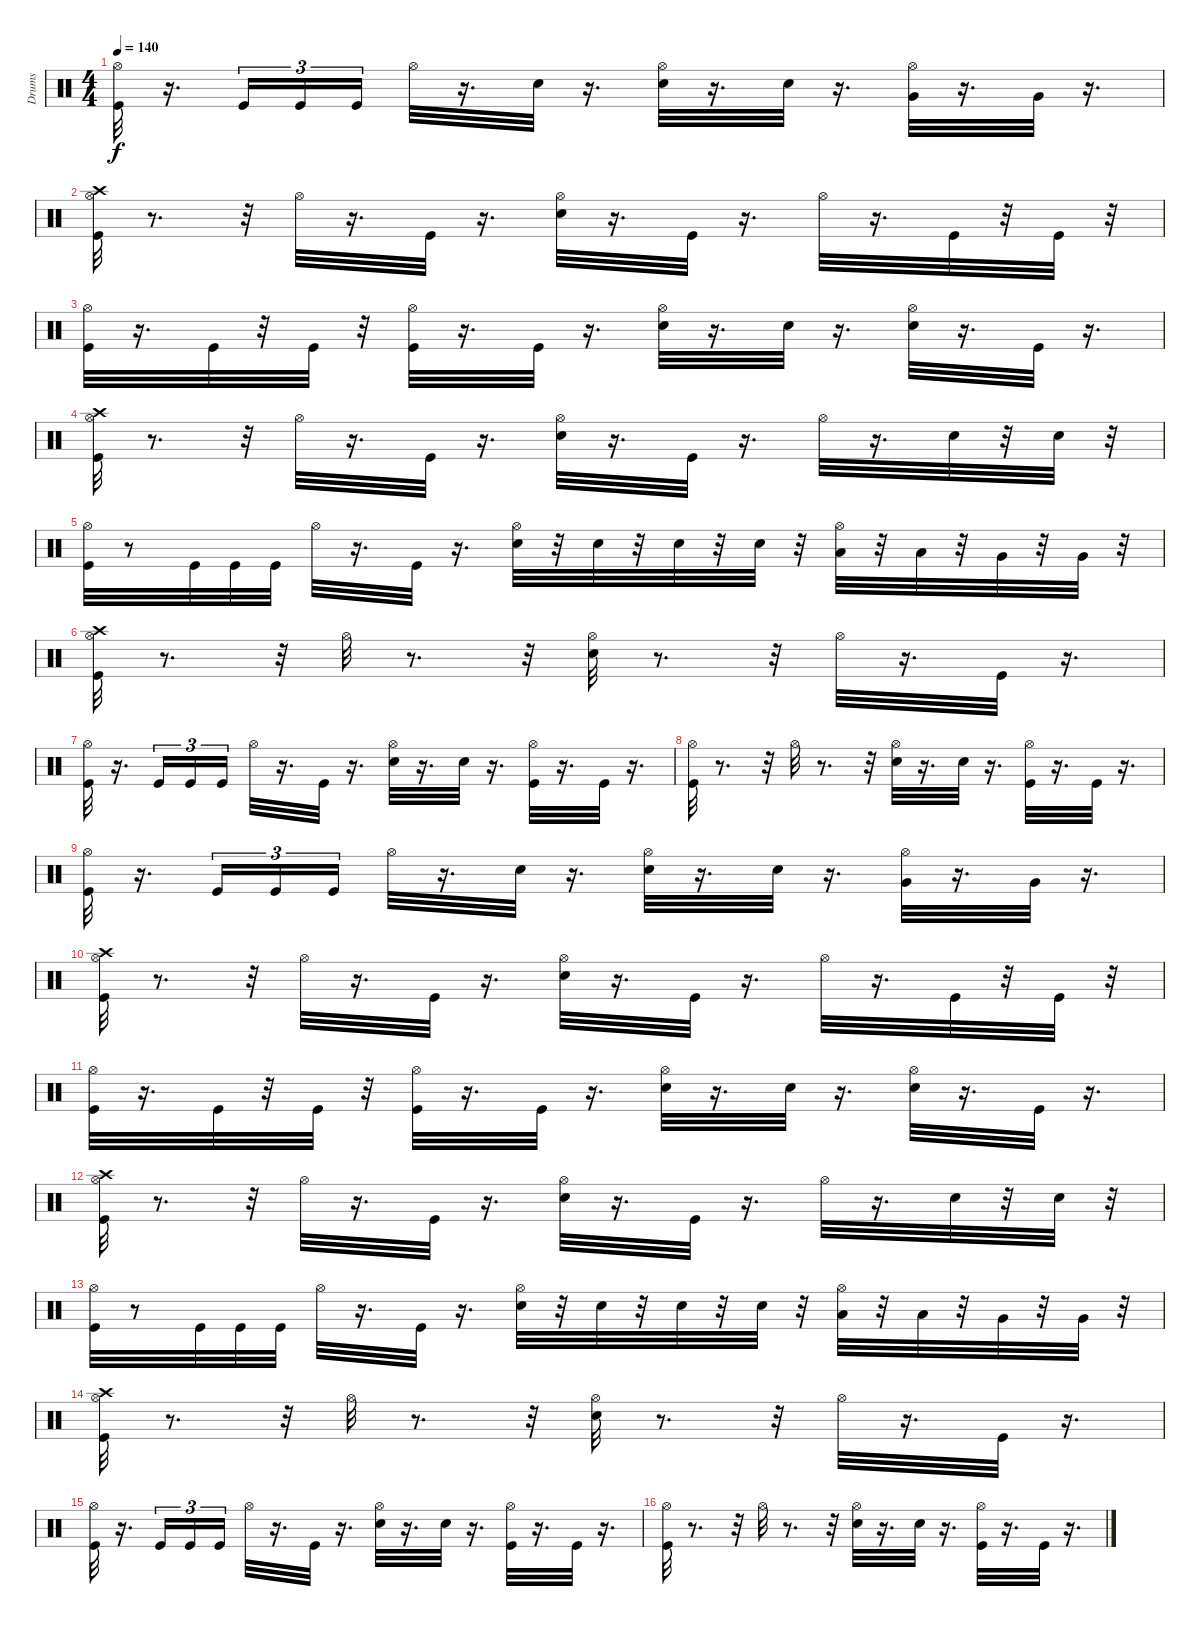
\track ("Drums" "Drums") {instrument percussion}
\staff {score}
\articulation defaults
\ts (4 4)
\tempo 140
\clef neutral
\ks c
("Hi-Hat (open)" "Kick (hit)").32{dy f} r.16{d} "Kick (hit)".16{tu (3 2)} "Kick (hit)".16{tu (3 2)} "Kick (hit)".16{tu (3 2)} "Hi-Hat (open)".32 r.16{d} "Electric Snare (hit)".32 r.16{d} ("Hi-Hat (open)" "Electric Snare (hit)").32 r.16{d} "Electric Snare (hit)".32 r.16{d} ("Hi-Hat (open)" "Very Low Tom (hit)").32 r.16{d} "Very Low Tom (hit)".32 r.16{d} |
("Hi-Hat (open)" "Crash high (hit)" "Kick (hit)").32 r.8{d} r.32 "Hi-Hat (open)".32 r.16{d} "Kick (hit)".32 r.16{d} ("Hi-Hat (open)" "Electric Snare (hit)").32 r.16{d} "Kick (hit)".32 r.16{d} "Hi-Hat (open)".32 r.16{d} "Kick (hit)".32 r.32 "Kick (hit)".32 r.32 |
("Hi-Hat (open)" "Kick (hit)").32 r.16{d} "Kick (hit)".32 r.32 "Kick (hit)".32 r.32 ("Hi-Hat (open)" "Kick (hit)").32 r.16{d} "Kick (hit)".32 r.16{d} ("Hi-Hat (open)" "Electric Snare (hit)").32 r.16{d} "Electric Snare (hit)".32 r.16{d} ("Hi-Hat (open)" "Electric Snare (hit)").32 r.16{d} "Kick (hit)".32 r.16{d} |
("Hi-Hat (open)" "Crash high (hit)" "Kick (hit)").32 r.8{d} r.32 "Hi-Hat (open)".32 r.16{d} "Kick (hit)".32 r.16{d} ("Hi-Hat (open)" "Electric Snare (hit)").32 r.16{d} "Kick (hit)".32 r.16{d} "Hi-Hat (open)".32 r.16{d} "Electric Snare (hit)".32 r.32 "Electric Snare (hit)".32 r.32 |
("Hi-Hat (open)" "Kick (hit)").32 r.8 "Kick (hit)".32 "Kick (hit)".32 "Kick (hit)".32 "Hi-Hat (open)".32 r.16{d} "Kick (hit)".32 r.16{d} ("Hi-Hat (open)" "Electric Snare (hit)").32 r.32 "Electric Snare (hit)".32 r.32 "Electric Snare (hit)".32 r.32 "Electric Snare (hit)".32 r.32 ("Hi-Hat (open)" "Low Tom (hit)").32 r.32 "Low Tom (hit)".32 r.32 "Very Low Tom (hit)".32 r.32 "Very Low Tom (hit)".32 r.32 |
("Hi-Hat (open)" "Crash high (hit)" "Kick (hit)").32 r.8{d} r.32 "Hi-Hat (open)".32 r.8{d} r.32 ("Hi-Hat (open)" "Electric Snare (hit)").32 r.8{d} r.32 "Hi-Hat (open)".32 r.16{d} "Kick (hit)".32 r.16{d} |
("Hi-Hat (open)" "Kick (hit)").32 r.16{d} "Kick (hit)".16{tu (3 2)} "Kick (hit)".16{tu (3 2)} "Kick (hit)".16{tu (3 2)} "Hi-Hat (open)".32 r.16{d} "Kick (hit)".32 r.16{d} ("Hi-Hat (open)" "Electric Snare (hit)").32 r.16{d} "Electric Snare (hit)".32 r.16{d} ("Hi-Hat (open)" "Kick (hit)").32 r.16{d} "Kick (hit)".32 r.16{d} |
("Hi-Hat (open)" "Kick (hit)").32 r.8{d} r.32 "Hi-Hat (open)".32 r.8{d} r.32 ("Hi-Hat (open)" "Electric Snare (hit)").32 r.16{d} "Electric Snare (hit)".32 r.16{d} ("Hi-Hat (open)" "Kick (hit)").32 r.16{d} "Kick (hit)".32 r.16{d} |
("Hi-Hat (open)" "Kick (hit)").32 r.16{d} "Kick (hit)".16{tu (3 2)} "Kick (hit)".16{tu (3 2)} "Kick (hit)".16{tu (3 2)} "Hi-Hat (open)".32 r.16{d} "Electric Snare (hit)".32 r.16{d} ("Hi-Hat (open)" "Electric Snare (hit)").32 r.16{d} "Electric Snare (hit)".32 r.16{d} ("Hi-Hat (open)" "Very Low Tom (hit)").32 r.16{d} "Very Low Tom (hit)".32 r.16{d} |
("Hi-Hat (open)" "Crash high (hit)" "Kick (hit)").32 r.8{d} r.32 "Hi-Hat (open)".32 r.16{d} "Kick (hit)".32 r.16{d} ("Hi-Hat (open)" "Electric Snare (hit)").32 r.16{d} "Kick (hit)".32 r.16{d} "Hi-Hat (open)".32 r.16{d} "Kick (hit)".32 r.32 "Kick (hit)".32 r.32 |
("Hi-Hat (open)" "Kick (hit)").32 r.16{d} "Kick (hit)".32 r.32 "Kick (hit)".32 r.32 ("Hi-Hat (open)" "Kick (hit)").32 r.16{d} "Kick (hit)".32 r.16{d} ("Hi-Hat (open)" "Electric Snare (hit)").32 r.16{d} "Electric Snare (hit)".32 r.16{d} ("Hi-Hat (open)" "Electric Snare (hit)").32 r.16{d} "Kick (hit)".32 r.16{d} |
("Hi-Hat (open)" "Crash high (hit)" "Kick (hit)").32 r.8{d} r.32 "Hi-Hat (open)".32 r.16{d} "Kick (hit)".32 r.16{d} ("Hi-Hat (open)" "Electric Snare (hit)").32 r.16{d} "Kick (hit)".32 r.16{d} "Hi-Hat (open)".32 r.16{d} "Electric Snare (hit)".32 r.32 "Electric Snare (hit)".32 r.32 |
("Hi-Hat (open)" "Kick (hit)").32 r.8 "Kick (hit)".32 "Kick (hit)".32 "Kick (hit)".32 "Hi-Hat (open)".32 r.16{d} "Kick (hit)".32 r.16{d} ("Hi-Hat (open)" "Electric Snare (hit)").32 r.32 "Electric Snare (hit)".32 r.32 "Electric Snare (hit)".32 r.32 "Electric Snare (hit)".32 r.32 ("Hi-Hat (open)" "Low Tom (hit)").32 r.32 "Low Tom (hit)".32 r.32 "Very Low Tom (hit)".32 r.32 "Very Low Tom (hit)".32 r.32 |
("Hi-Hat (open)" "Crash high (hit)" "Kick (hit)").32 r.8{d} r.32 "Hi-Hat (open)".32 r.8{d} r.32 ("Hi-Hat (open)" "Electric Snare (hit)").32 r.8{d} r.32 "Hi-Hat (open)".32 r.16{d} "Kick (hit)".32 r.16{d} |
("Hi-Hat (open)" "Kick (hit)").32 r.16{d} "Kick (hit)".16{tu (3 2)} "Kick (hit)".16{tu (3 2)} "Kick (hit)".16{tu (3 2)} "Hi-Hat (open)".32 r.16{d} "Kick (hit)".32 r.16{d} ("Hi-Hat (open)" "Electric Snare (hit)").32 r.16{d} "Electric Snare (hit)".32 r.16{d} ("Hi-Hat (open)" "Kick (hit)").32 r.16{d} "Kick (hit)".32 r.16{d} |
("Hi-Hat (open)" "Kick (hit)").32 r.8{d} r.32 "Hi-Hat (open)".32 r.8{d} r.32 ("Hi-Hat (open)" "Electric Snare (hit)").32 r.16{d} "Electric Snare (hit)".32 r.16{d} ("Hi-Hat (open)" "Kick (hit)").32 r.16{d} "Kick (hit)".32 r.16{d}
